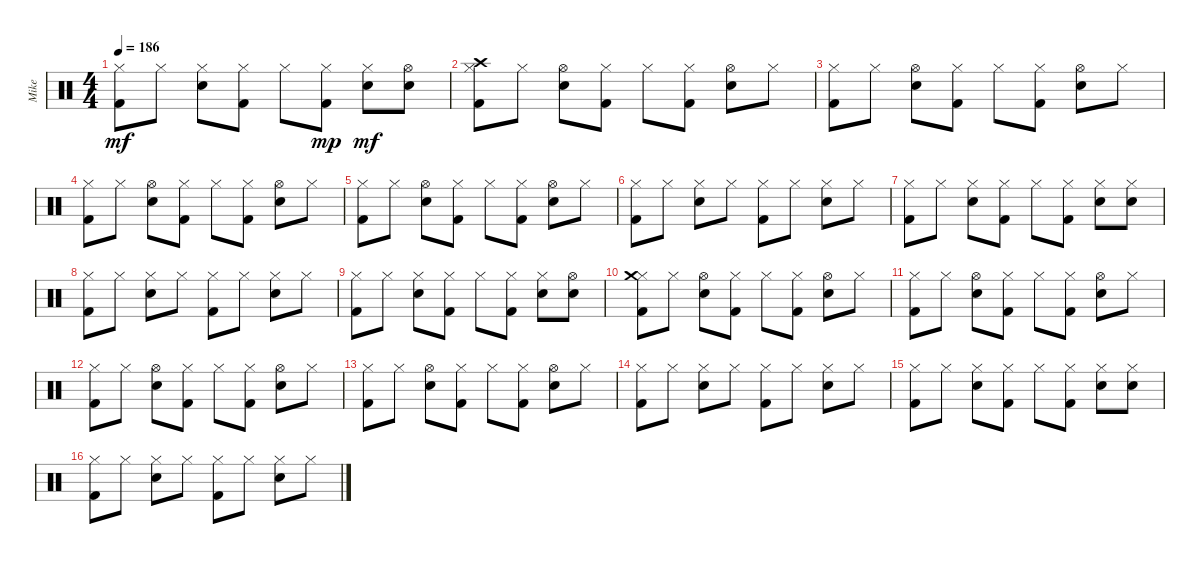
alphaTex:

\track ("Mike" "Mike") {instrument percussion}
\staff {score}
\articulation defaults
\ts (4 4)
\tempo 186
\clef neutral
\ks c
("Hi-Hat (closed)" "Kick (hit) 2").8{dy mf} "Hi-Hat (closed)".8 ("Hi-Hat (closed)" "Snare (hit) 2").8 ("Hi-Hat (closed)" "Kick (hit) 2").8 "Hi-Hat (closed)".8 ("Hi-Hat (closed)" "Kick (hit) 2").8{dy mp} ("Hi-Hat (closed)" "Snare (hit) 2").8{dy mf} ("Hi-Hat (open)" "Snare (hit) 2").8 |
("Hi-Hat (closed)" "Crash high (hit)" "Kick (hit) 2").8 "Hi-Hat (closed)".8 ("Hi-Hat (open)" "Snare (hit) 2").8 ("Hi-Hat (closed)" "Kick (hit) 2").8 "Hi-Hat (closed)".8 ("Hi-Hat (closed)" "Kick (hit) 2").8 ("Hi-Hat (open)" "Snare (hit) 2").8 "Hi-Hat (closed)".8 |
("Hi-Hat (closed)" "Kick (hit) 2").8 "Hi-Hat (closed)".8 ("Hi-Hat (open)" "Snare (hit) 2").8 ("Hi-Hat (closed)" "Kick (hit) 2").8 "Hi-Hat (closed)".8 ("Hi-Hat (closed)" "Kick (hit) 2").8 ("Hi-Hat (open)" "Snare (hit) 2").8 "Hi-Hat (closed)".8 |
("Hi-Hat (closed)" "Kick (hit) 2").8 "Hi-Hat (closed)".8 ("Hi-Hat (open)" "Snare (hit) 2").8 ("Hi-Hat (closed)" "Kick (hit) 2").8 "Hi-Hat (closed)".8 ("Hi-Hat (closed)" "Kick (hit) 2").8 ("Hi-Hat (open)" "Snare (hit) 2").8 "Hi-Hat (closed)".8 |
("Hi-Hat (closed)" "Kick (hit) 2").8 "Hi-Hat (closed)".8 ("Hi-Hat (open)" "Snare (hit) 2").8 ("Hi-Hat (closed)" "Kick (hit) 2").8 "Hi-Hat (closed)".8 ("Hi-Hat (closed)" "Kick (hit) 2").8 ("Hi-Hat (open)" "Snare (hit) 2").8 "Hi-Hat (closed)".8 |
("Hi-Hat (closed)" "Kick (hit) 2").8 "Hi-Hat (closed)".8 ("Hi-Hat (closed)" "Snare (hit) 2").8 "Hi-Hat (closed)".8 ("Hi-Hat (closed)" "Kick (hit) 2").8 "Hi-Hat (closed)".8 ("Hi-Hat (closed)" "Snare (hit) 2").8 "Hi-Hat (closed)".8 |
("Hi-Hat (closed)" "Kick (hit) 2").8 "Hi-Hat (closed)".8 ("Hi-Hat (closed)" "Snare (hit) 2").8 ("Hi-Hat (closed)" "Kick (hit) 2").8 "Hi-Hat (closed)".8 ("Hi-Hat (closed)" "Kick (hit) 2").8 ("Hi-Hat (closed)" "Snare (hit) 2").8 ("Hi-Hat (closed)" "Snare (hit) 2").8 |
("Hi-Hat (closed)" "Kick (hit) 2").8 "Hi-Hat (closed)".8 ("Hi-Hat (closed)" "Snare (hit) 2").8 "Hi-Hat (closed)".8 ("Hi-Hat (closed)" "Kick (hit) 2").8 "Hi-Hat (closed)".8 ("Hi-Hat (closed)" "Snare (hit) 2").8 "Hi-Hat (closed)".8 |
("Hi-Hat (closed)" "Kick (hit) 2").8 "Hi-Hat (closed)".8 ("Hi-Hat (closed)" "Snare (hit) 2").8 ("Hi-Hat (closed)" "Kick (hit) 2").8 "Hi-Hat (closed)".8 ("Hi-Hat (closed)" "Kick (hit) 2").8 ("Hi-Hat (closed)" "Snare (hit) 2").8 ("Hi-Hat (open)" "Snare (hit) 2").8 |
("Hi-Hat (closed)" "Crash medium (hit)" "Kick (hit) 2").8 "Hi-Hat (closed)".8 ("Hi-Hat (open)" "Snare (hit) 2").8 ("Hi-Hat (closed)" "Kick (hit) 2").8 "Hi-Hat (closed)".8 ("Hi-Hat (closed)" "Kick (hit) 2").8 ("Hi-Hat (open)" "Snare (hit) 2").8 "Hi-Hat (closed)".8 |
("Hi-Hat (closed)" "Kick (hit) 2").8 "Hi-Hat (closed)".8 ("Hi-Hat (open)" "Snare (hit) 2").8 ("Hi-Hat (closed)" "Kick (hit) 2").8 "Hi-Hat (closed)".8 ("Hi-Hat (closed)" "Kick (hit) 2").8 ("Hi-Hat (open)" "Snare (hit) 2").8 "Hi-Hat (closed)".8 |
("Hi-Hat (closed)" "Kick (hit) 2").8 "Hi-Hat (closed)".8 ("Hi-Hat (open)" "Snare (hit) 2").8 ("Hi-Hat (closed)" "Kick (hit) 2").8 "Hi-Hat (closed)".8 ("Hi-Hat (closed)" "Kick (hit) 2").8 ("Hi-Hat (open)" "Snare (hit) 2").8 "Hi-Hat (closed)".8 |
("Hi-Hat (closed)" "Kick (hit) 2").8 "Hi-Hat (closed)".8 ("Hi-Hat (open)" "Snare (hit) 2").8 ("Hi-Hat (closed)" "Kick (hit) 2").8 "Hi-Hat (closed)".8 ("Hi-Hat (closed)" "Kick (hit) 2").8 ("Hi-Hat (open)" "Snare (hit) 2").8 "Hi-Hat (closed)".8 |
("Hi-Hat (closed)" "Kick (hit) 2").8 "Hi-Hat (closed)".8 ("Hi-Hat (closed)" "Snare (hit) 2").8 "Hi-Hat (closed)".8 ("Hi-Hat (closed)" "Kick (hit) 2").8 "Hi-Hat (closed)".8 ("Hi-Hat (closed)" "Snare (hit) 2").8 "Hi-Hat (closed)".8 |
("Hi-Hat (closed)" "Kick (hit) 2").8 "Hi-Hat (closed)".8 ("Hi-Hat (closed)" "Snare (hit) 2").8 ("Hi-Hat (closed)" "Kick (hit) 2").8 "Hi-Hat (closed)".8 ("Hi-Hat (closed)" "Kick (hit) 2").8 ("Hi-Hat (closed)" "Snare (hit) 2").8 ("Hi-Hat (closed)" "Snare (hit) 2").8 |
("Hi-Hat (closed)" "Kick (hit) 2").8 "Hi-Hat (closed)".8 ("Hi-Hat (closed)" "Snare (hit) 2").8 "Hi-Hat (closed)".8 ("Hi-Hat (closed)" "Kick (hit) 2").8 "Hi-Hat (closed)".8 ("Hi-Hat (closed)" "Snare (hit) 2").8 "Hi-Hat (closed)".8
